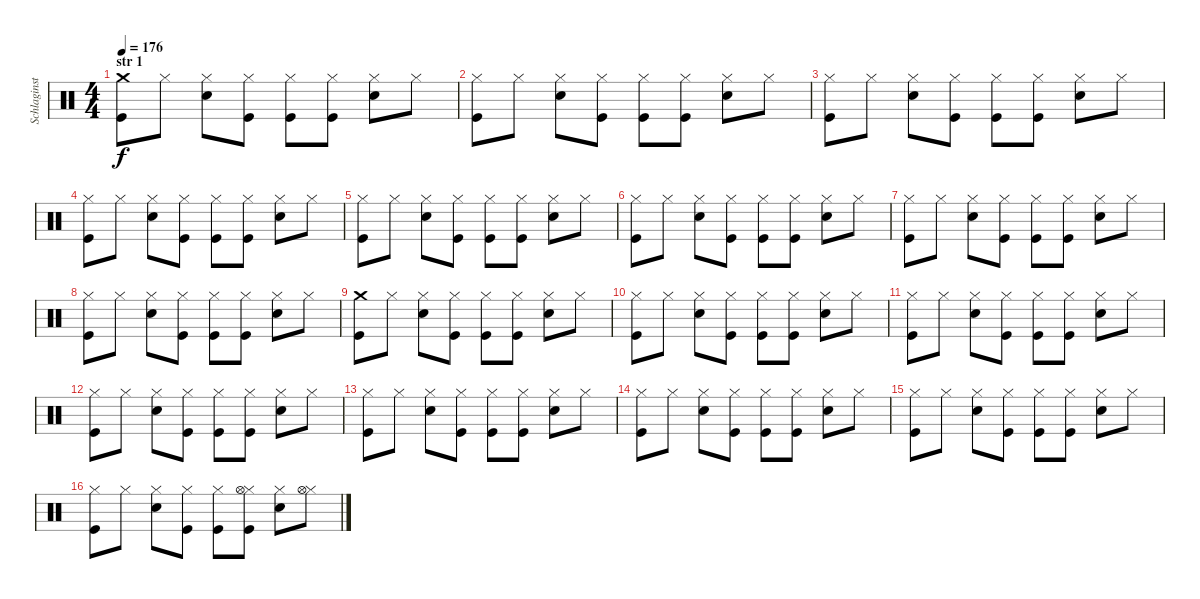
\track ("Schlaginstrumente - Auswahl" "Schlaginst") {instrument percussion}
\staff {score}
\articulation defaults
\ts (4 4)
\section ("" "str 1")
\tempo 176
\clef neutral
\ks c
("Crash medium (hit)" "Kick (hit)").8{dy f} "Hi-Hat (closed)".8 ("Hi-Hat (closed)" "Snare (hit) 2").8 ("Hi-Hat (closed)" "Kick (hit)").8 ("Hi-Hat (closed)" "Kick (hit)").8 ("Hi-Hat (closed)" "Kick (hit)").8 ("Hi-Hat (closed)" "Snare (hit) 2").8 "Hi-Hat (closed)".8 |
("Hi-Hat (closed)" "Kick (hit)").8 "Hi-Hat (closed)".8 ("Hi-Hat (closed)" "Snare (hit) 2").8 ("Hi-Hat (closed)" "Kick (hit)").8 ("Hi-Hat (closed)" "Kick (hit)").8 ("Hi-Hat (closed)" "Kick (hit)").8 ("Hi-Hat (closed)" "Snare (hit) 2").8 "Hi-Hat (closed)".8 |
("Hi-Hat (closed)" "Kick (hit)").8 "Hi-Hat (closed)".8 ("Hi-Hat (closed)" "Snare (hit) 2").8 ("Hi-Hat (closed)" "Kick (hit)").8 ("Hi-Hat (closed)" "Kick (hit)").8 ("Hi-Hat (closed)" "Kick (hit)").8 ("Hi-Hat (closed)" "Snare (hit) 2").8 "Hi-Hat (closed)".8 |
("Hi-Hat (closed)" "Kick (hit)").8 "Hi-Hat (closed)".8 ("Hi-Hat (closed)" "Snare (hit) 2").8 ("Hi-Hat (closed)" "Kick (hit)").8 ("Hi-Hat (closed)" "Kick (hit)").8 ("Hi-Hat (closed)" "Kick (hit)").8 ("Hi-Hat (closed)" "Snare (hit) 2").8 "Hi-Hat (closed)".8 |
("Hi-Hat (closed)" "Kick (hit)").8 "Hi-Hat (closed)".8 ("Hi-Hat (closed)" "Snare (hit) 2").8 ("Hi-Hat (closed)" "Kick (hit)").8 ("Hi-Hat (closed)" "Kick (hit)").8 ("Hi-Hat (closed)" "Kick (hit)").8 ("Hi-Hat (closed)" "Snare (hit) 2").8 "Hi-Hat (closed)".8 |
("Hi-Hat (closed)" "Kick (hit)").8 "Hi-Hat (closed)".8 ("Hi-Hat (closed)" "Snare (hit) 2").8 ("Hi-Hat (closed)" "Kick (hit)").8 ("Hi-Hat (closed)" "Kick (hit)").8 ("Hi-Hat (closed)" "Kick (hit)").8 ("Hi-Hat (closed)" "Snare (hit) 2").8 "Hi-Hat (closed)".8 |
("Hi-Hat (closed)" "Kick (hit)").8 "Hi-Hat (closed)".8 ("Hi-Hat (closed)" "Snare (hit) 2").8 ("Hi-Hat (closed)" "Kick (hit)").8 ("Hi-Hat (closed)" "Kick (hit)").8 ("Hi-Hat (closed)" "Kick (hit)").8 ("Hi-Hat (closed)" "Snare (hit) 2").8 "Hi-Hat (closed)".8 |
("Hi-Hat (closed)" "Kick (hit)").8 "Hi-Hat (closed)".8 ("Hi-Hat (closed)" "Snare (hit) 2").8 ("Hi-Hat (closed)" "Kick (hit)").8 ("Hi-Hat (closed)" "Kick (hit)").8 ("Hi-Hat (closed)" "Kick (hit)").8 ("Hi-Hat (closed)" "Snare (hit) 2").8 "Hi-Hat (closed)".8 |
("Crash medium (hit)" "Kick (hit)").8 "Hi-Hat (closed)".8 ("Hi-Hat (closed)" "Snare (hit) 2").8 ("Hi-Hat (closed)" "Kick (hit)").8 ("Hi-Hat (closed)" "Kick (hit)").8 ("Hi-Hat (closed)" "Kick (hit)").8 ("Hi-Hat (closed)" "Snare (hit) 2").8 "Hi-Hat (closed)".8 |
("Hi-Hat (closed)" "Kick (hit)").8 "Hi-Hat (closed)".8 ("Hi-Hat (closed)" "Snare (hit) 2").8 ("Hi-Hat (closed)" "Kick (hit)").8 ("Hi-Hat (closed)" "Kick (hit)").8 ("Hi-Hat (closed)" "Kick (hit)").8 ("Hi-Hat (closed)" "Snare (hit) 2").8 "Hi-Hat (closed)".8 |
("Hi-Hat (closed)" "Kick (hit)").8 "Hi-Hat (closed)".8 ("Hi-Hat (closed)" "Snare (hit) 2").8 ("Hi-Hat (closed)" "Kick (hit)").8 ("Hi-Hat (closed)" "Kick (hit)").8 ("Hi-Hat (closed)" "Kick (hit)").8 ("Hi-Hat (closed)" "Snare (hit) 2").8 "Hi-Hat (closed)".8 |
("Hi-Hat (closed)" "Kick (hit)").8 "Hi-Hat (closed)".8 ("Hi-Hat (closed)" "Snare (hit) 2").8 ("Hi-Hat (closed)" "Kick (hit)").8 ("Hi-Hat (closed)" "Kick (hit)").8 ("Hi-Hat (closed)" "Kick (hit)").8 ("Hi-Hat (closed)" "Snare (hit) 2").8 "Hi-Hat (closed)".8 |
("Hi-Hat (closed)" "Kick (hit)").8 "Hi-Hat (closed)".8 ("Hi-Hat (closed)" "Snare (hit) 2").8 ("Hi-Hat (closed)" "Kick (hit)").8 ("Hi-Hat (closed)" "Kick (hit)").8 ("Hi-Hat (closed)" "Kick (hit)").8 ("Hi-Hat (closed)" "Snare (hit) 2").8 "Hi-Hat (closed)".8 |
("Hi-Hat (closed)" "Kick (hit)").8 "Hi-Hat (closed)".8 ("Hi-Hat (closed)" "Snare (hit) 2").8 ("Hi-Hat (closed)" "Kick (hit)").8 ("Hi-Hat (closed)" "Kick (hit)").8 ("Hi-Hat (closed)" "Kick (hit)").8 ("Hi-Hat (closed)" "Snare (hit) 2").8 "Hi-Hat (closed)".8 |
("Hi-Hat (closed)" "Kick (hit)").8 "Hi-Hat (closed)".8 ("Hi-Hat (closed)" "Snare (hit) 2").8 ("Hi-Hat (closed)" "Kick (hit)").8 ("Hi-Hat (closed)" "Kick (hit)").8 ("Hi-Hat (closed)" "Kick (hit)").8 ("Hi-Hat (closed)" "Snare (hit) 2").8 "Hi-Hat (closed)".8 |
("Hi-Hat (closed)" "Kick (hit)").8 "Hi-Hat (closed)".8 ("Hi-Hat (closed)" "Snare (hit) 2").8 ("Hi-Hat (closed)" "Kick (hit)").8 ("Hi-Hat (closed)" "Kick (hit)").8 ("Hi-Hat (closed)" "Kick (hit)" "Hi-Hat (open)").8 ("Hi-Hat (closed)" "Snare (hit) 2").8 ("Hi-Hat (closed)" "Hi-Hat (open)").8
